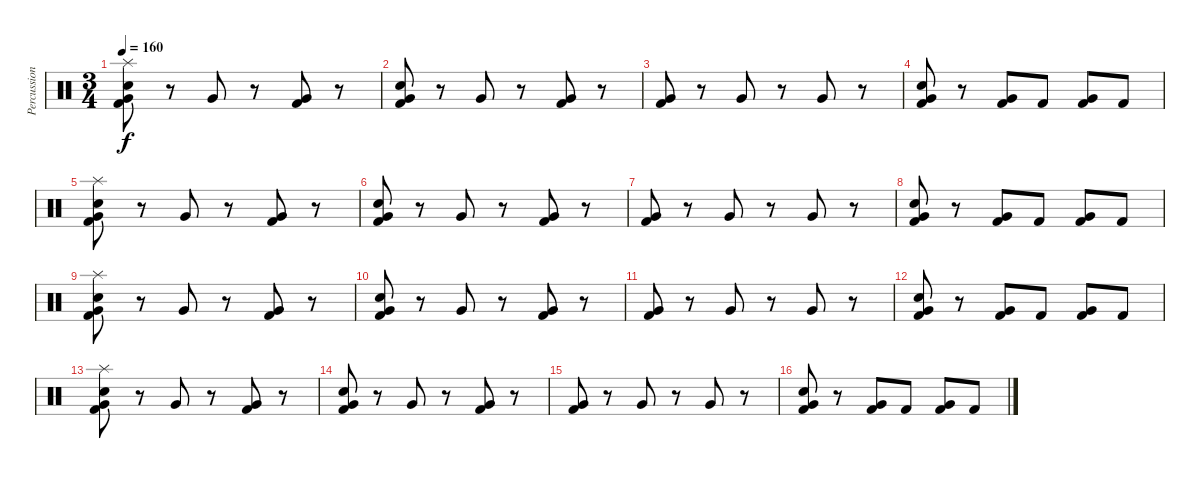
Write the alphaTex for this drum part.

\track ("Percussion" "Percussion") {instrument percussion}
\staff {score}
\articulation defaults
\ts (3 4)
\tempo 160
\clef neutral
\ks c
("Splash (hit)" "Snare (hit) 2" "Kick (hit) 2" "Very Low Tom (hit)").8{dy f} r.8 "Very Low Tom (hit)".8 r.8 ("Kick (hit) 2" "Very Low Tom (hit)").8 r.8 |
("Snare (hit) 2" "Kick (hit) 2" "Very Low Tom (hit)").8 r.8 "Very Low Tom (hit)".8 r.8 ("Kick (hit) 2" "Very Low Tom (hit)").8 r.8 |
("Kick (hit) 2" "Very Low Tom (hit)").8 r.8 "Very Low Tom (hit)".8 r.8 "Very Low Tom (hit)".8 r.8 |
("Snare (hit) 2" "Kick (hit) 2" "Very Low Tom (hit)").8 r.8 ("Kick (hit) 2" "Very Low Tom (hit)").8 "Kick (hit) 2".8 ("Kick (hit) 2" "Very Low Tom (hit)").8 "Kick (hit) 2".8 |
("Splash (hit)" "Snare (hit) 2" "Kick (hit) 2" "Very Low Tom (hit)").8 r.8 "Very Low Tom (hit)".8 r.8 ("Kick (hit) 2" "Very Low Tom (hit)").8 r.8 |
("Snare (hit) 2" "Kick (hit) 2" "Very Low Tom (hit)").8 r.8 "Very Low Tom (hit)".8 r.8 ("Kick (hit) 2" "Very Low Tom (hit)").8 r.8 |
("Kick (hit) 2" "Very Low Tom (hit)").8 r.8 "Very Low Tom (hit)".8 r.8 "Very Low Tom (hit)".8 r.8 |
("Snare (hit) 2" "Kick (hit) 2" "Very Low Tom (hit)").8 r.8 ("Kick (hit) 2" "Very Low Tom (hit)").8 "Kick (hit) 2".8 ("Kick (hit) 2" "Very Low Tom (hit)").8 "Kick (hit) 2".8 |
("Splash (hit)" "Snare (hit) 2" "Kick (hit) 2" "Very Low Tom (hit)").8 r.8 "Very Low Tom (hit)".8 r.8 ("Kick (hit) 2" "Very Low Tom (hit)").8 r.8 |
("Snare (hit) 2" "Kick (hit) 2" "Very Low Tom (hit)").8 r.8 "Very Low Tom (hit)".8 r.8 ("Kick (hit) 2" "Very Low Tom (hit)").8 r.8 |
("Kick (hit) 2" "Very Low Tom (hit)").8 r.8 "Very Low Tom (hit)".8 r.8 "Very Low Tom (hit)".8 r.8 |
("Snare (hit) 2" "Kick (hit) 2" "Very Low Tom (hit)").8 r.8 ("Kick (hit) 2" "Very Low Tom (hit)").8 "Kick (hit) 2".8 ("Kick (hit) 2" "Very Low Tom (hit)").8 "Kick (hit) 2".8 |
("Splash (hit)" "Snare (hit) 2" "Kick (hit) 2" "Very Low Tom (hit)").8 r.8 "Very Low Tom (hit)".8 r.8 ("Kick (hit) 2" "Very Low Tom (hit)").8 r.8 |
("Snare (hit) 2" "Kick (hit) 2" "Very Low Tom (hit)").8 r.8 "Very Low Tom (hit)".8 r.8 ("Kick (hit) 2" "Very Low Tom (hit)").8 r.8 |
("Kick (hit) 2" "Very Low Tom (hit)").8 r.8 "Very Low Tom (hit)".8 r.8 "Very Low Tom (hit)".8 r.8 |
("Snare (hit) 2" "Kick (hit) 2" "Very Low Tom (hit)").8 r.8 ("Kick (hit) 2" "Very Low Tom (hit)").8 "Kick (hit) 2".8 ("Kick (hit) 2" "Very Low Tom (hit)").8 "Kick (hit) 2".8
